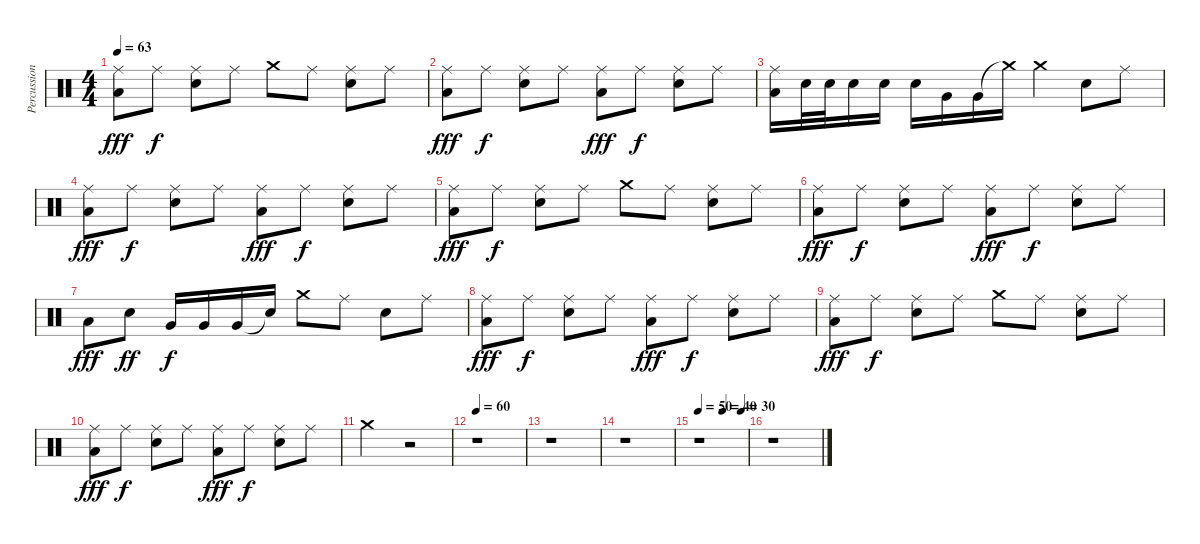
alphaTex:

\track ("Percussion" "Percussion") {instrument percussion}
\staff {score}
\articulation defaults
\ts (4 4)
\tempo 63
\clef neutral
\ks c
("Low Floor Tom (hit)" "Ride (middle)").8{dy fff} "Ride (middle)".8{dy f} ("Electric Snare (hit)" "Ride (middle)").8 "Ride (middle)".8 "Crash medium (hit)".8 "Ride (middle)".8 ("Electric Snare (hit)" "Ride (middle)").8 "Ride (middle)".8 |
("Low Floor Tom (hit)" "Ride (middle)").8{dy fff} "Ride (middle)".8{dy f} ("Electric Snare (hit)" "Ride (middle)").8 "Ride (middle)".8 ("Low Floor Tom (hit)" "Ride (middle)").8{dy fff} "Ride (middle)".8{dy f} ("Electric Snare (hit)" "Ride (middle)").8 "Ride (middle)".8 |
("Low Floor Tom (hit)" "Ride (middle)").16 "Electric Snare (hit)".32 "Electric Snare (hit)".32 "Electric Snare (hit)".16 "Electric Snare (hit)".16 "Electric Snare (hit)".16 "Very Low Tom (hit)".16 "Very Low Tom (hit)".16 "Crash medium (hit)"{t}.16 "Crash medium (hit)".4 "Electric Snare (hit)".8 "Ride (middle)".8 |
("Low Floor Tom (hit)" "Ride (middle)").8{dy fff} "Ride (middle)".8{dy f} ("Electric Snare (hit)" "Ride (middle)").8 "Ride (middle)".8 ("Low Floor Tom (hit)" "Ride (middle)").8{dy fff} "Ride (middle)".8{dy f} ("Electric Snare (hit)" "Ride (middle)").8 "Ride (middle)".8 |
("Low Floor Tom (hit)" "Ride (middle)").8{dy fff} "Ride (middle)".8{dy f} ("Electric Snare (hit)" "Ride (middle)").8 "Ride (middle)".8 "Crash medium (hit)".8 "Ride (middle)".8 ("Electric Snare (hit)" "Ride (middle)").8 "Ride (middle)".8 |
("Low Floor Tom (hit)" "Ride (middle)").8{dy fff} "Ride (middle)".8{dy f} ("Electric Snare (hit)" "Ride (middle)").8 "Ride (middle)".8 ("Low Floor Tom (hit)" "Ride (middle)").8{dy fff} "Ride (middle)".8{dy f} ("Electric Snare (hit)" "Ride (middle)").8 "Ride (middle)".8 |
"Low Floor Tom (hit)".8{dy fff} "Electric Snare (hit)".8{dy ff} "Very Low Tom (hit)".16{dy f} "Very Low Tom (hit)".16 "Very Low Tom (hit)".16 "Snare (hit)"{t}.16 "Crash medium (hit)".8 "Ride (middle)".8 "Electric Snare (hit)".8 "Ride (middle)".8 |
("Low Floor Tom (hit)" "Ride (middle)").8{dy fff} "Ride (middle)".8{dy f} ("Electric Snare (hit)" "Ride (middle)").8 "Ride (middle)".8 ("Low Floor Tom (hit)" "Ride (middle)").8{dy fff} "Ride (middle)".8{dy f} ("Electric Snare (hit)" "Ride (middle)").8 "Ride (middle)".8 |
("Low Floor Tom (hit)" "Ride (middle)").8{dy fff} "Ride (middle)".8{dy f} ("Electric Snare (hit)" "Ride (middle)").8 "Ride (middle)".8 "Crash medium (hit)".8 "Ride (middle)".8 ("Electric Snare (hit)" "Ride (middle)").8 "Ride (middle)".8 |
("Low Floor Tom (hit)" "Ride (middle)").8{dy fff} "Ride (middle)".8{dy f} ("Electric Snare (hit)" "Ride (middle)").8 "Ride (middle)".8 ("Low Floor Tom (hit)" "Ride (middle)").8{dy fff} "Ride (middle)".8{dy f} ("Electric Snare (hit)" "Ride (middle)").8 "Ride (middle)".8 |
"Crash medium (hit)".2 r.2 |
\tempo 60
r.1 |
r.1 |
r.1 |
\tempo 50
\tempo (40 0.5)
\tempo (30 0.875)
r.1 |
r.1
